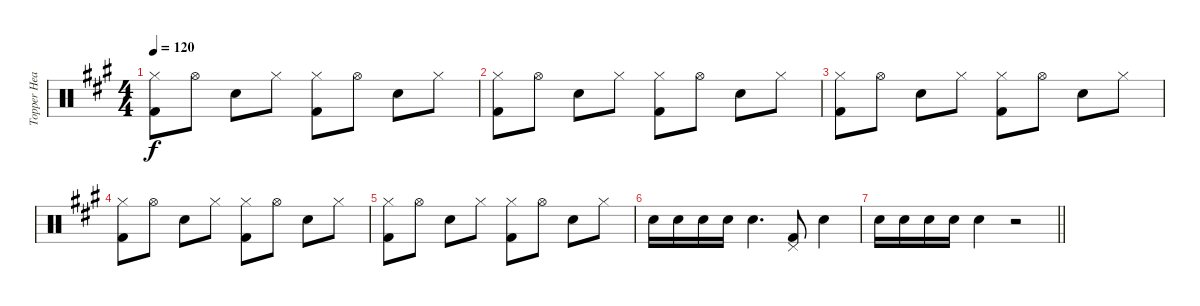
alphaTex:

\track ("Topper Headon - Drums" "Topper Hea") {instrument percussion}
\staff {score}
\articulation defaults
\ts (4 4)
\tempo 120
\clef neutral
\ks a
("Hi-Hat (closed)" "Kick (hit) 2").8{dy f} "Hi-Hat (open)".8 "Electric Snare (hit)".8 "Hi-Hat (closed)".8 ("Hi-Hat (closed)" "Kick (hit) 2").8 "Hi-Hat (open)".8 "Electric Snare (hit)".8 "Hi-Hat (closed)".8 |
("Hi-Hat (closed)" "Kick (hit) 2").8 "Hi-Hat (open)".8 "Electric Snare (hit)".8 "Hi-Hat (closed)".8 ("Hi-Hat (closed)" "Kick (hit) 2").8 "Hi-Hat (open)".8 "Electric Snare (hit)".8 "Hi-Hat (closed)".8 |
("Hi-Hat (closed)" "Kick (hit) 2").8 "Hi-Hat (open)".8 "Electric Snare (hit)".8 "Hi-Hat (closed)".8 ("Hi-Hat (closed)" "Kick (hit) 2").8 "Hi-Hat (open)".8 "Electric Snare (hit)".8 "Hi-Hat (closed)".8 |
("Hi-Hat (closed)" "Kick (hit) 2").8 "Hi-Hat (open)".8 "Electric Snare (hit)".8 "Hi-Hat (closed)".8 ("Hi-Hat (closed)" "Kick (hit) 2").8 "Hi-Hat (open)".8 "Electric Snare (hit)".8 "Hi-Hat (closed)".8 |
("Hi-Hat (closed)" "Kick (hit) 2").8 "Hi-Hat (open)".8 "Electric Snare (hit)".8 "Hi-Hat (closed)".8 ("Hi-Hat (closed)" "Kick (hit) 2").8 "Hi-Hat (open)".8 "Electric Snare (hit)".8 "Hi-Hat (closed)".8 |
"Electric Snare (hit)".16 "Electric Snare (hit)".16 "Electric Snare (hit)".16 "Electric Snare (hit)".16 "Electric Snare (hit)".4{d} ("Pedal Hi-Hat (hit)" "Kick (hit) 2").8 "Electric Snare (hit)".4 |
\barLineRight lightlight "Electric Snare (hit)".16 "Electric Snare (hit)".16 "Electric Snare (hit)".16 "Electric Snare (hit)".16 "Electric Snare (hit)".4
r.2
